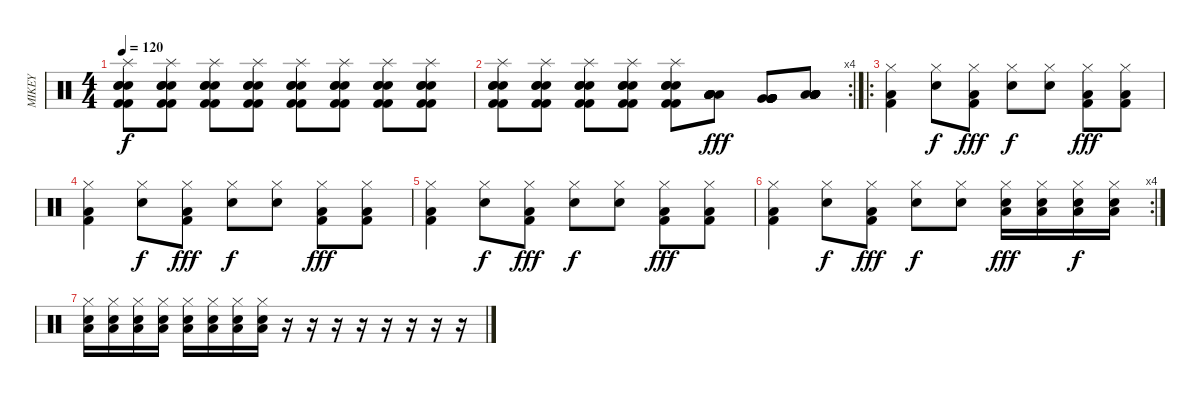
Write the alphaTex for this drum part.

\track ("MIKEY" "MIKEY") {instrument percussion}
\staff {score}
\articulation defaults
\ts (4 4)
\tempo 120
\clef neutral
\ks c
("Splash (hit)" "Kick (hit) 2" "Snare (hit) 2" "Kick (hit) 2" "Snare (hit) 2" "Electric Snare (hit)").8{dy f} ("Splash (hit)" "Kick (hit) 2" "Snare (hit) 2" "Kick (hit) 2" "Snare (hit) 2" "Electric Snare (hit)").8 ("Splash (hit)" "Kick (hit) 2" "Snare (hit) 2" "Kick (hit) 2" "Snare (hit) 2" "Electric Snare (hit)").8 ("Splash (hit)" "Kick (hit) 2" "Snare (hit) 2" "Kick (hit) 2" "Snare (hit) 2" "Electric Snare (hit)").8 ("Splash (hit)" "Kick (hit) 2" "Snare (hit) 2" "Kick (hit) 2" "Snare (hit) 2" "Electric Snare (hit)").8 ("Splash (hit)" "Kick (hit) 2" "Snare (hit) 2" "Kick (hit) 2" "Snare (hit) 2" "Electric Snare (hit)").8 ("Splash (hit)" "Kick (hit) 2" "Snare (hit) 2" "Kick (hit) 2" "Snare (hit) 2" "Electric Snare (hit)").8 ("Splash (hit)" "Kick (hit) 2" "Snare (hit) 2" "Kick (hit) 2" "Snare (hit) 2" "Electric Snare (hit)").8 |
\rc 4
("Splash (hit)" "Kick (hit) 2" "Snare (hit) 2" "Kick (hit) 2" "Snare (hit) 2" "Electric Snare (hit)").8 ("Splash (hit)" "Kick (hit) 2" "Snare (hit) 2" "Kick (hit) 2" "Snare (hit) 2" "Electric Snare (hit)").8 ("Splash (hit)" "Kick (hit) 2" "Snare (hit) 2" "Kick (hit) 2" "Snare (hit) 2" "Electric Snare (hit)").8 ("Splash (hit)" "Kick (hit) 2" "Snare (hit) 2" "Kick (hit) 2" "Snare (hit) 2" "Electric Snare (hit)").8 ("Splash (hit)" "Kick (hit) 2" "Snare (hit) 2" "Kick (hit) 2" "Snare (hit) 2" "Electric Snare (hit)").8 ("Low Tom (hit)" "Low Tom (hit)" "Low Tom (hit)" "Low Tom (hit)" "Low Tom (hit)" "Low Tom (hit)").8{dy fff} ("Very Low Tom (hit)" "Very Low Tom (hit)" "Very Low Tom (hit)" "Very Low Tom (hit)" "Very Low Tom (hit)" "Very Low Tom (hit)").8 ("Low Floor Tom (hit)" "Low Floor Tom (hit)" "Low Floor Tom (hit)" "Low Floor Tom (hit)" "Low Floor Tom (hit)" "Low Floor Tom (hit)").8 |
\ro
("Hi-Hat (closed)" "Low Floor Tom (hit)" "Kick (hit) 2").4 ("Hi-Hat (closed)" "Electric Snare (hit)").8{dy f} ("Hi-Hat (closed)" "Low Floor Tom (hit)" "Kick (hit) 2").8{dy fff} ("Hi-Hat (closed)" "Electric Snare (hit)").8{dy f} ("Hi-Hat (closed)" "Electric Snare (hit)").8 ("Hi-Hat (closed)" "Low Floor Tom (hit)" "Kick (hit) 2").8{dy fff} ("Hi-Hat (closed)" "Low Floor Tom (hit)" "Kick (hit) 2").8 |
("Hi-Hat (closed)" "Low Floor Tom (hit)" "Kick (hit) 2").4 ("Hi-Hat (closed)" "Electric Snare (hit)").8{dy f} ("Hi-Hat (closed)" "Low Floor Tom (hit)" "Kick (hit) 2").8{dy fff} ("Hi-Hat (closed)" "Electric Snare (hit)").8{dy f} ("Hi-Hat (closed)" "Electric Snare (hit)").8 ("Hi-Hat (closed)" "Low Floor Tom (hit)" "Kick (hit) 2").8{dy fff} ("Hi-Hat (closed)" "Low Floor Tom (hit)" "Kick (hit) 2").8 |
("Hi-Hat (closed)" "Low Floor Tom (hit)" "Kick (hit) 2").4 ("Hi-Hat (closed)" "Electric Snare (hit)").8{dy f} ("Hi-Hat (closed)" "Low Floor Tom (hit)" "Kick (hit) 2").8{dy fff} ("Hi-Hat (closed)" "Electric Snare (hit)").8{dy f} ("Hi-Hat (closed)" "Electric Snare (hit)").8 ("Hi-Hat (closed)" "Low Floor Tom (hit)" "Kick (hit) 2").8{dy fff} ("Hi-Hat (closed)" "Low Floor Tom (hit)" "Kick (hit) 2").8 |
\rc 4
("Hi-Hat (closed)" "Low Floor Tom (hit)" "Kick (hit) 2").4 ("Hi-Hat (closed)" "Electric Snare (hit)").8{dy f} ("Hi-Hat (closed)" "Low Floor Tom (hit)" "Kick (hit) 2").8{dy fff} ("Hi-Hat (closed)" "Electric Snare (hit)").8{dy f} ("Hi-Hat (closed)" "Electric Snare (hit)").8 ("Hi-Hat (closed)" "Low Floor Tom (hit)" "Electric Snare (hit)").16{dy fff} ("Hi-Hat (closed)" "Low Floor Tom (hit)" "Electric Snare (hit)").16 ("Hi-Hat (closed)" "Low Floor Tom (hit)" "Electric Snare (hit)").16{dy f} ("Hi-Hat (closed)" "Low Floor Tom (hit)" "Electric Snare (hit)").16 |
("Hi-Hat (closed)" "Low Floor Tom (hit)" "Electric Snare (hit)").16 ("Hi-Hat (closed)" "Low Floor Tom (hit)" "Electric Snare (hit)").16 ("Hi-Hat (closed)" "Low Floor Tom (hit)" "Electric Snare (hit)").16 ("Hi-Hat (closed)" "Low Floor Tom (hit)" "Electric Snare (hit)").16 ("Hi-Hat (closed)" "Low Floor Tom (hit)" "Electric Snare (hit)").16 ("Hi-Hat (closed)" "Low Floor Tom (hit)" "Electric Snare (hit)").16 ("Hi-Hat (closed)" "Low Floor Tom (hit)" "Electric Snare (hit)").16 ("Hi-Hat (closed)" "Low Floor Tom (hit)" "Electric Snare (hit)").16 r.16 r.16 r.16 r.16 r.16 r.16 r.16 r.16
